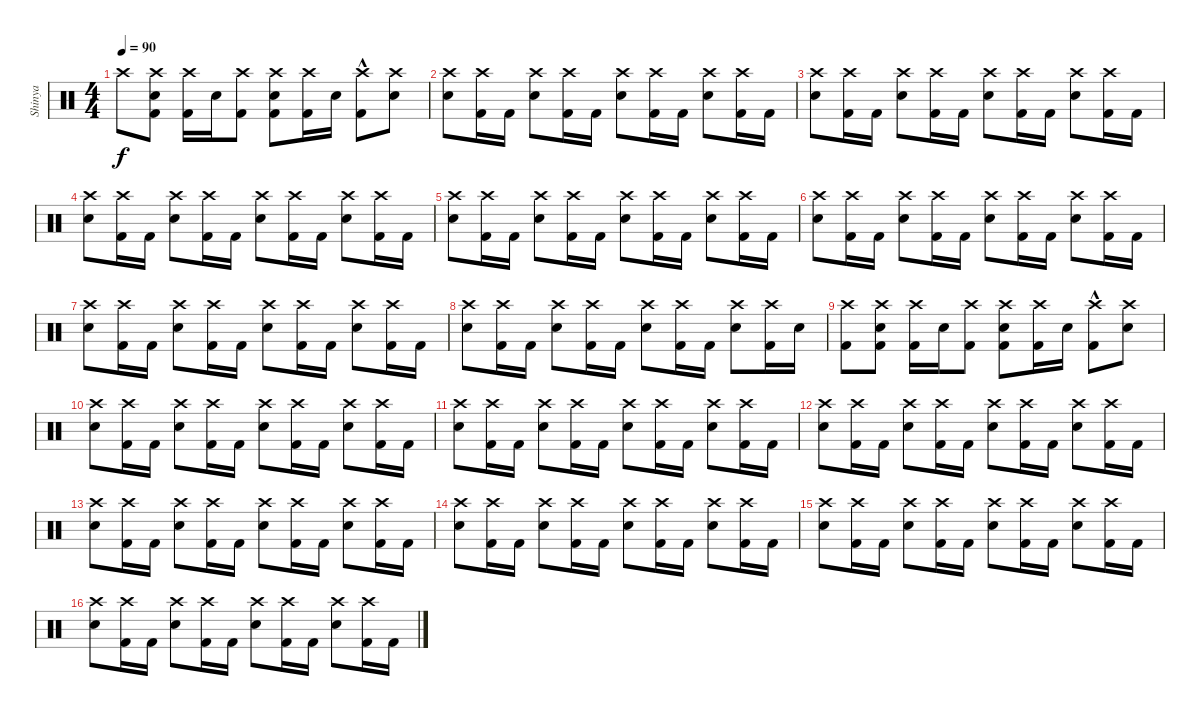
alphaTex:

\track ("Shinya" "Shinya") {instrument percussion}
\staff {score}
\articulation defaults
\ts (4 4)
\tempo 90
\clef neutral
\ks c "Crash high (hit)".8{dy f}
("Kick (hit) 2" "Crash high (hit)" "Snare (hit) 2").8 ("Kick (hit) 2" "Crash high (hit)").16 "Snare (hit) 2".16 ("Kick (hit) 2" "Crash high (hit)").8 ("Kick (hit) 2" "Crash high (hit)" "Snare (hit) 2").8 ("Kick (hit) 2" "Crash high (hit)").16 "Snare (hit) 2".16 ("Kick (hit) 2"{hac} "Crash high (hit)").8 ("Crash high (hit)" "Snare (hit) 2").8 |
("Crash high (hit)" "Snare (hit) 2").8 ("Crash high (hit)" "Kick (hit) 2").16 "Kick (hit) 2".16 ("Crash high (hit)" "Snare (hit) 2").8 ("Crash high (hit)" "Kick (hit) 2").16 "Kick (hit) 2".16 ("Crash high (hit)" "Snare (hit) 2").8 ("Crash high (hit)" "Kick (hit) 2").16 "Kick (hit) 2".16 ("Crash high (hit)" "Snare (hit) 2").8 ("Crash high (hit)" "Kick (hit) 2").16 "Kick (hit) 2".16 |
("Crash high (hit)" "Snare (hit) 2").8 ("Crash high (hit)" "Kick (hit) 2").16 "Kick (hit) 2".16 ("Crash high (hit)" "Snare (hit) 2").8 ("Crash high (hit)" "Kick (hit) 2").16 "Kick (hit) 2".16 ("Crash high (hit)" "Snare (hit) 2").8 ("Crash high (hit)" "Kick (hit) 2").16 "Kick (hit) 2".16 ("Crash high (hit)" "Snare (hit) 2").8 ("Crash high (hit)" "Kick (hit) 2").16 "Kick (hit) 2".16 |
("Crash high (hit)" "Snare (hit) 2").8 ("Crash high (hit)" "Kick (hit) 2").16 "Kick (hit) 2".16 ("Crash high (hit)" "Snare (hit) 2").8 ("Crash high (hit)" "Kick (hit) 2").16 "Kick (hit) 2".16 ("Crash high (hit)" "Snare (hit) 2").8 ("Crash high (hit)" "Kick (hit) 2").16 "Kick (hit) 2".16 ("Crash high (hit)" "Snare (hit) 2").8 ("Crash high (hit)" "Kick (hit) 2").16 "Kick (hit) 2".16 |
("Crash high (hit)" "Snare (hit) 2").8 ("Crash high (hit)" "Kick (hit) 2").16 "Kick (hit) 2".16 ("Crash high (hit)" "Snare (hit) 2").8 ("Crash high (hit)" "Kick (hit) 2").16 "Kick (hit) 2".16 ("Crash high (hit)" "Snare (hit) 2").8 ("Crash high (hit)" "Kick (hit) 2").16 "Kick (hit) 2".16 ("Crash high (hit)" "Snare (hit) 2").8 ("Crash high (hit)" "Kick (hit) 2").16 "Kick (hit) 2".16 |
("Crash high (hit)" "Snare (hit) 2").8 ("Crash high (hit)" "Kick (hit) 2").16 "Kick (hit) 2".16 ("Crash high (hit)" "Snare (hit) 2").8 ("Crash high (hit)" "Kick (hit) 2").16 "Kick (hit) 2".16 ("Crash high (hit)" "Snare (hit) 2").8 ("Crash high (hit)" "Kick (hit) 2").16 "Kick (hit) 2".16 ("Crash high (hit)" "Snare (hit) 2").8 ("Crash high (hit)" "Kick (hit) 2").16 "Kick (hit) 2".16 |
("Crash high (hit)" "Snare (hit) 2").8 ("Crash high (hit)" "Kick (hit) 2").16 "Kick (hit) 2".16 ("Crash high (hit)" "Snare (hit) 2").8 ("Crash high (hit)" "Kick (hit) 2").16 "Kick (hit) 2".16 ("Crash high (hit)" "Snare (hit) 2").8 ("Crash high (hit)" "Kick (hit) 2").16 "Kick (hit) 2".16 ("Crash high (hit)" "Snare (hit) 2").8 ("Crash high (hit)" "Kick (hit) 2").16 "Kick (hit) 2".16 |
("Crash high (hit)" "Snare (hit) 2").8 ("Crash high (hit)" "Kick (hit) 2").16 "Kick (hit) 2".16 ("Crash high (hit)" "Snare (hit) 2").8 ("Crash high (hit)" "Kick (hit) 2").16 "Kick (hit) 2".16 ("Crash high (hit)" "Snare (hit) 2").8 ("Crash high (hit)" "Kick (hit) 2").16 "Kick (hit) 2".16 ("Crash high (hit)" "Snare (hit) 2").8 ("Crash high (hit)" "Kick (hit) 2").16 "Snare (hit) 2".16 |
("Kick (hit) 2" "Crash high (hit)").8 ("Kick (hit) 2" "Crash high (hit)" "Snare (hit) 2").8 ("Kick (hit) 2" "Crash high (hit)").16 "Snare (hit) 2".16 ("Kick (hit) 2" "Crash high (hit)").8 ("Kick (hit) 2" "Crash high (hit)" "Snare (hit) 2").8 ("Kick (hit) 2" "Crash high (hit)").16 "Snare (hit) 2".16 ("Kick (hit) 2"{hac} "Crash high (hit)").8 ("Crash high (hit)" "Snare (hit) 2").8 |
("Crash high (hit)" "Snare (hit) 2").8 ("Crash high (hit)" "Kick (hit) 2").16 "Kick (hit) 2".16 ("Crash high (hit)" "Snare (hit) 2").8 ("Crash high (hit)" "Kick (hit) 2").16 "Kick (hit) 2".16 ("Crash high (hit)" "Snare (hit) 2").8 ("Crash high (hit)" "Kick (hit) 2").16 "Kick (hit) 2".16 ("Crash high (hit)" "Snare (hit) 2").8 ("Crash high (hit)" "Kick (hit) 2").16 "Kick (hit) 2".16 |
("Crash high (hit)" "Snare (hit) 2").8 ("Crash high (hit)" "Kick (hit) 2").16 "Kick (hit) 2".16 ("Crash high (hit)" "Snare (hit) 2").8 ("Crash high (hit)" "Kick (hit) 2").16 "Kick (hit) 2".16 ("Crash high (hit)" "Snare (hit) 2").8 ("Crash high (hit)" "Kick (hit) 2").16 "Kick (hit) 2".16 ("Crash high (hit)" "Snare (hit) 2").8 ("Crash high (hit)" "Kick (hit) 2").16 "Kick (hit) 2".16 |
("Crash high (hit)" "Snare (hit) 2").8 ("Crash high (hit)" "Kick (hit) 2").16 "Kick (hit) 2".16 ("Crash high (hit)" "Snare (hit) 2").8 ("Crash high (hit)" "Kick (hit) 2").16 "Kick (hit) 2".16 ("Crash high (hit)" "Snare (hit) 2").8 ("Crash high (hit)" "Kick (hit) 2").16 "Kick (hit) 2".16 ("Crash high (hit)" "Snare (hit) 2").8 ("Crash high (hit)" "Kick (hit) 2").16 "Kick (hit) 2".16 |
("Crash high (hit)" "Snare (hit) 2").8 ("Crash high (hit)" "Kick (hit) 2").16 "Kick (hit) 2".16 ("Crash high (hit)" "Snare (hit) 2").8 ("Crash high (hit)" "Kick (hit) 2").16 "Kick (hit) 2".16 ("Crash high (hit)" "Snare (hit) 2").8 ("Crash high (hit)" "Kick (hit) 2").16 "Kick (hit) 2".16 ("Crash high (hit)" "Snare (hit) 2").8 ("Crash high (hit)" "Kick (hit) 2").16 "Kick (hit) 2".16 |
("Crash high (hit)" "Snare (hit) 2").8 ("Crash high (hit)" "Kick (hit) 2").16 "Kick (hit) 2".16 ("Crash high (hit)" "Snare (hit) 2").8 ("Crash high (hit)" "Kick (hit) 2").16 "Kick (hit) 2".16 ("Crash high (hit)" "Snare (hit) 2").8 ("Crash high (hit)" "Kick (hit) 2").16 "Kick (hit) 2".16 ("Crash high (hit)" "Snare (hit) 2").8 ("Crash high (hit)" "Kick (hit) 2").16 "Kick (hit) 2".16 |
("Crash high (hit)" "Snare (hit) 2").8 ("Crash high (hit)" "Kick (hit) 2").16 "Kick (hit) 2".16 ("Crash high (hit)" "Snare (hit) 2").8 ("Crash high (hit)" "Kick (hit) 2").16 "Kick (hit) 2".16 ("Crash high (hit)" "Snare (hit) 2").8 ("Crash high (hit)" "Kick (hit) 2").16 "Kick (hit) 2".16 ("Crash high (hit)" "Snare (hit) 2").8 ("Crash high (hit)" "Kick (hit) 2").16 "Kick (hit) 2".16 |
("Crash high (hit)" "Snare (hit) 2").8 ("Crash high (hit)" "Kick (hit) 2").16 "Kick (hit) 2".16 ("Crash high (hit)" "Snare (hit) 2").8 ("Crash high (hit)" "Kick (hit) 2").16 "Kick (hit) 2".16 ("Crash high (hit)" "Snare (hit) 2").8 ("Crash high (hit)" "Kick (hit) 2").16 "Kick (hit) 2".16 ("Crash high (hit)" "Snare (hit) 2").8 ("Crash high (hit)" "Kick (hit) 2").16 "Kick (hit) 2".16
